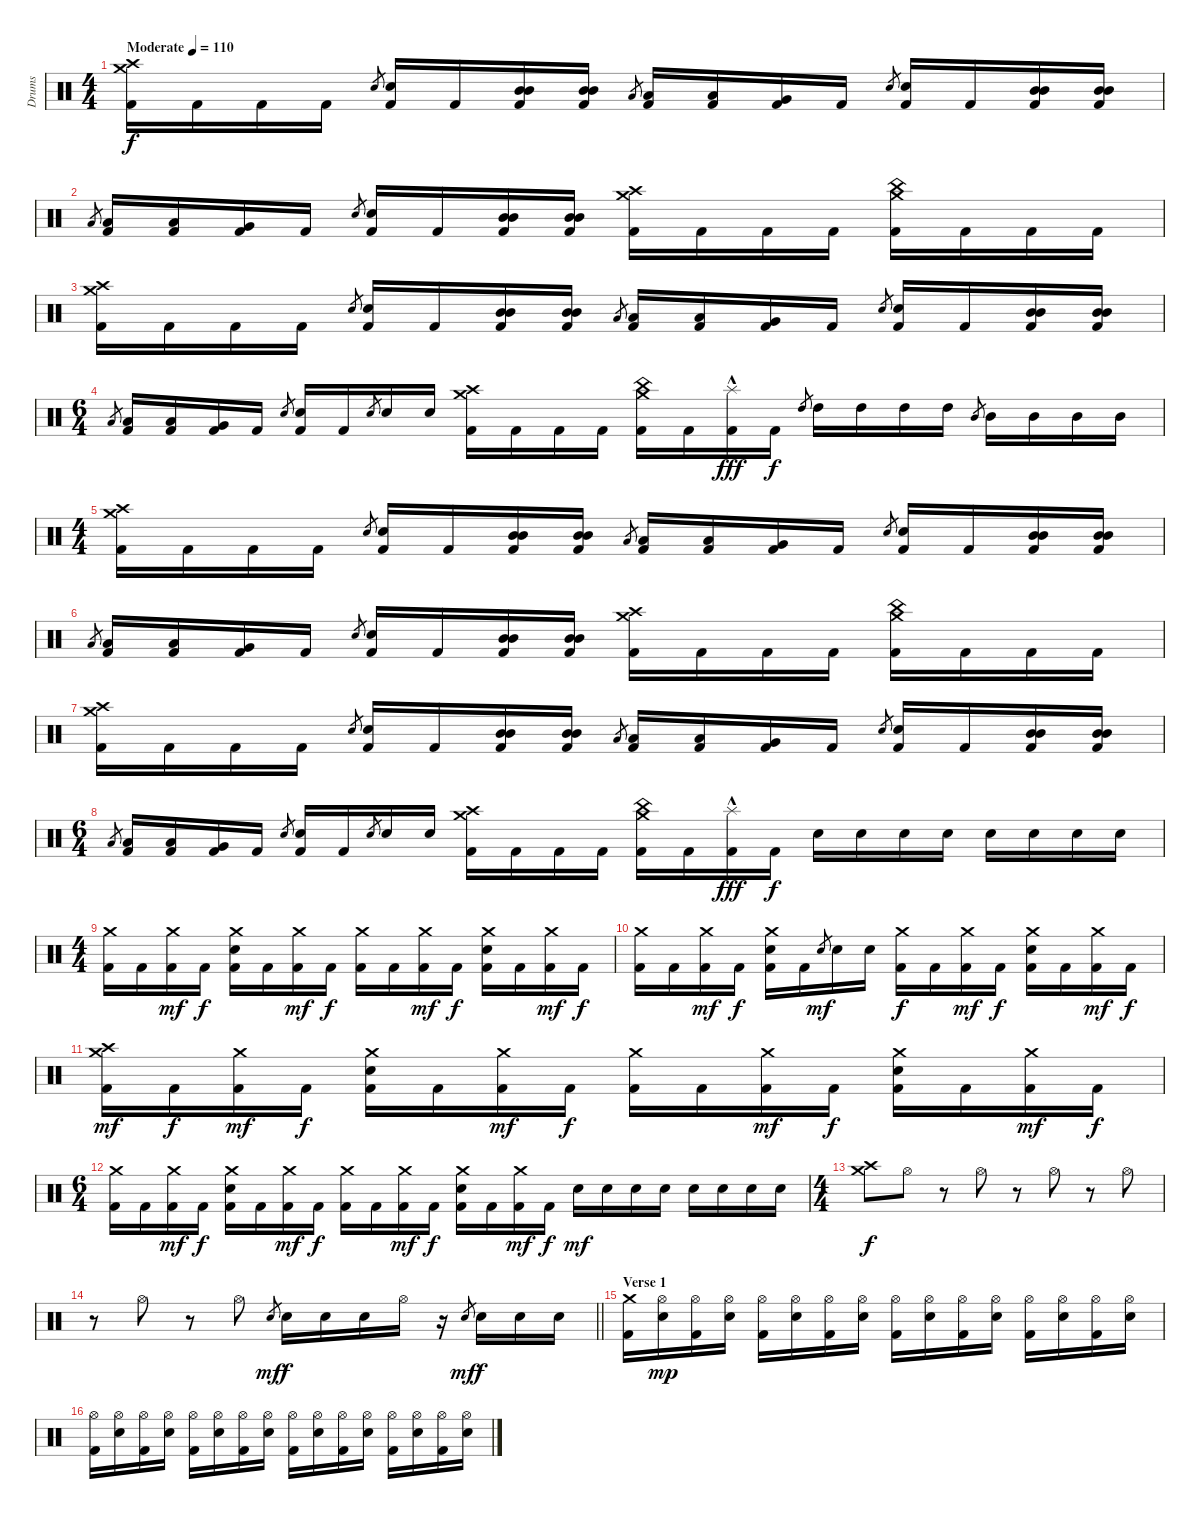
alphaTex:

\track ("Drums" "Drums") {instrument percussion}
\staff {score}
\articulation defaults
\ts (4 4)
\tempo (110 "Moderate")
\clef neutral
\ks c
("Crash high (hit)" "Crash medium (hit)" "Kick (hit) 2").16{dy f} "Kick (hit) 2".16 "Kick (hit) 2".16 "Kick (hit) 2".16 "Electric Snare (hit)".8{gr} ("Electric Snare (hit)" "Kick (hit) 2").16 "Kick (hit) 2".16 ("Mid Tom (hit)" "Mid Tom (hit)" "Kick (hit) 2").16 ("Mid Tom (hit)" "Mid Tom (hit)" "Kick (hit) 2").16 "Low Tom (hit)".8{gr} ("Low Tom (hit)" "Kick (hit) 2").16 ("Low Tom (hit)" "Kick (hit) 2").16 ("Very Low Tom (hit)" "Kick (hit) 2").16 "Kick (hit) 2".16 "Electric Snare (hit)".8{gr} ("Electric Snare (hit)" "Kick (hit) 2").16 "Kick (hit) 2".16 ("Mid Tom (hit)" "Mid Tom (hit)" "Kick (hit) 2").16 ("Mid Tom (hit)" "Mid Tom (hit)" "Kick (hit) 2").16 |
"Low Tom (hit)".8{gr} ("Low Tom (hit)" "Kick (hit) 2").16 ("Low Tom (hit)" "Kick (hit) 2").16 ("Very Low Tom (hit)" "Kick (hit) 2").16 "Kick (hit) 2".16 "Electric Snare (hit)".8{gr} ("Electric Snare (hit)" "Kick (hit) 2").16 "Kick (hit) 2".16 ("Mid Tom (hit)" "Mid Tom (hit)" "Kick (hit) 2").16 ("Mid Tom (hit)" "Mid Tom (hit)" "Kick (hit) 2").16 ("Crash high (hit)" "Crash medium (hit)" "Kick (hit) 2").16 "Kick (hit) 2".16 "Kick (hit) 2".16 "Kick (hit) 2".16 ("Crash medium (hit)" "China (hit)" "Kick (hit) 2").16 "Kick (hit) 2".16 "Kick (hit) 2".16 "Kick (hit) 2".16 |
("Crash high (hit)" "Crash medium (hit)" "Kick (hit) 2").16 "Kick (hit) 2".16 "Kick (hit) 2".16 "Kick (hit) 2".16 "Electric Snare (hit)".8{gr} ("Electric Snare (hit)" "Kick (hit) 2").16 "Kick (hit) 2".16 ("Mid Tom (hit)" "Mid Tom (hit)" "Kick (hit) 2").16 ("Mid Tom (hit)" "Mid Tom (hit)" "Kick (hit) 2").16 "Low Tom (hit)".8{gr} ("Low Tom (hit)" "Kick (hit) 2").16 ("Low Tom (hit)" "Kick (hit) 2").16 ("Very Low Tom (hit)" "Kick (hit) 2").16 "Kick (hit) 2".16 "Electric Snare (hit)".8{gr} ("Electric Snare (hit)" "Kick (hit) 2").16 "Kick (hit) 2".16 ("Mid Tom (hit)" "Mid Tom (hit)" "Kick (hit) 2").16 ("Mid Tom (hit)" "Mid Tom (hit)" "Kick (hit) 2").16 |
\ts (6 4)
"Low Tom (hit)".8{gr} ("Low Tom (hit)" "Kick (hit) 2").16 ("Low Tom (hit)" "Kick (hit) 2").16 ("Very Low Tom (hit)" "Kick (hit) 2").16 "Kick (hit) 2".16 "Electric Snare (hit)".8{gr} ("Electric Snare (hit)" "Kick (hit) 2").16 "Kick (hit) 2".16 "Electric Snare (hit)".8{gr} "Electric Snare (hit)".16 "Electric Snare (hit)".16 ("Crash high (hit)" "Crash medium (hit)" "Kick (hit) 2").16 "Kick (hit) 2".16 "Kick (hit) 2".16 "Kick (hit) 2".16 ("Crash medium (hit)" "China (hit)" "Kick (hit) 2").16 "Kick (hit) 2".16 ("Splash (hit)"{hac} "Kick (hit) 2").16{dy fff} "Kick (hit) 2".16{dy f} "High Tom (hit)".8{gr} "High Tom (hit)".16 "High Tom (hit)".16 "High Tom (hit)".16 "High Tom (hit)".16 "Mid Tom (hit)".8{gr} "Mid Tom (hit)".16 "Mid Tom (hit)".16 "Mid Tom (hit)".16 "Mid Tom (hit)".16 |
\ts (4 4)
("Crash high (hit)" "Crash medium (hit)" "Kick (hit) 2").16 "Kick (hit) 2".16 "Kick (hit) 2".16 "Kick (hit) 2".16 "Electric Snare (hit)".8{gr} ("Electric Snare (hit)" "Kick (hit) 2").16 "Kick (hit) 2".16 ("Mid Tom (hit)" "Mid Tom (hit)" "Kick (hit) 2").16 ("Mid Tom (hit)" "Mid Tom (hit)" "Kick (hit) 2").16 "Low Tom (hit)".8{gr} ("Low Tom (hit)" "Kick (hit) 2").16 ("Low Tom (hit)" "Kick (hit) 2").16 ("Very Low Tom (hit)" "Kick (hit) 2").16 "Kick (hit) 2".16 "Electric Snare (hit)".8{gr} ("Electric Snare (hit)" "Kick (hit) 2").16 "Kick (hit) 2".16 ("Mid Tom (hit)" "Mid Tom (hit)" "Kick (hit) 2").16 ("Mid Tom (hit)" "Mid Tom (hit)" "Kick (hit) 2").16 |
"Low Tom (hit)".8{gr} ("Low Tom (hit)" "Kick (hit) 2").16 ("Low Tom (hit)" "Kick (hit) 2").16 ("Very Low Tom (hit)" "Kick (hit) 2").16 "Kick (hit) 2".16 "Electric Snare (hit)".8{gr} ("Electric Snare (hit)" "Kick (hit) 2").16 "Kick (hit) 2".16 ("Mid Tom (hit)" "Mid Tom (hit)" "Kick (hit) 2").16 ("Mid Tom (hit)" "Mid Tom (hit)" "Kick (hit) 2").16 ("Crash high (hit)" "Crash medium (hit)" "Kick (hit) 2").16 "Kick (hit) 2".16 "Kick (hit) 2".16 "Kick (hit) 2".16 ("Crash medium (hit)" "China (hit)" "Kick (hit) 2").16 "Kick (hit) 2".16 "Kick (hit) 2".16 "Kick (hit) 2".16 |
("Crash high (hit)" "Crash medium (hit)" "Kick (hit) 2").16 "Kick (hit) 2".16 "Kick (hit) 2".16 "Kick (hit) 2".16 "Electric Snare (hit)".8{gr} ("Electric Snare (hit)" "Kick (hit) 2").16 "Kick (hit) 2".16 ("Mid Tom (hit)" "Mid Tom (hit)" "Kick (hit) 2").16 ("Mid Tom (hit)" "Mid Tom (hit)" "Kick (hit) 2").16 "Low Tom (hit)".8{gr} ("Low Tom (hit)" "Kick (hit) 2").16 ("Low Tom (hit)" "Kick (hit) 2").16 ("Very Low Tom (hit)" "Kick (hit) 2").16 "Kick (hit) 2".16 "Electric Snare (hit)".8{gr} ("Electric Snare (hit)" "Kick (hit) 2").16 "Kick (hit) 2".16 ("Mid Tom (hit)" "Mid Tom (hit)" "Kick (hit) 2").16 ("Mid Tom (hit)" "Mid Tom (hit)" "Kick (hit) 2").16 |
\ts (6 4)
"Low Tom (hit)".8{gr} ("Low Tom (hit)" "Kick (hit) 2").16 ("Low Tom (hit)" "Kick (hit) 2").16 ("Very Low Tom (hit)" "Kick (hit) 2").16 "Kick (hit) 2".16 "Electric Snare (hit)".8{gr} ("Electric Snare (hit)" "Kick (hit) 2").16 "Kick (hit) 2".16 "Electric Snare (hit)".8{gr} "Electric Snare (hit)".16 "Electric Snare (hit)".16 ("Crash high (hit)" "Crash medium (hit)" "Kick (hit) 2").16 "Kick (hit) 2".16 "Kick (hit) 2".16 "Kick (hit) 2".16 ("Crash medium (hit)" "China (hit)" "Kick (hit) 2").16 "Kick (hit) 2".16 ("Splash (hit)"{hac} "Kick (hit) 2").16{dy fff} "Kick (hit) 2".16{dy f} "Electric Snare (hit)".16 "Electric Snare (hit)".16 "Electric Snare (hit)".16 "Electric Snare (hit)".16 "Electric Snare (hit)".16 "Electric Snare (hit)".16 "Electric Snare (hit)".16 "Electric Snare (hit)".16 |
\ts (4 4)
("Crash medium (hit)" "Kick (hit) 2").16 "Kick (hit) 2".16 ("Crash medium (hit)" "Kick (hit) 2").16{dy mf} "Kick (hit) 2".16{dy f} ("Crash medium (hit)" "Electric Snare (hit)" "Kick (hit) 2").16 "Kick (hit) 2".16 ("Crash medium (hit)" "Kick (hit) 2").16{dy mf} "Kick (hit) 2".16{dy f} ("Crash medium (hit)" "Kick (hit) 2").16 "Kick (hit) 2".16 ("Crash medium (hit)" "Kick (hit) 2").16{dy mf} "Kick (hit) 2".16{dy f} ("Crash medium (hit)" "Electric Snare (hit)" "Kick (hit) 2").16 "Kick (hit) 2".16 ("Crash medium (hit)" "Kick (hit) 2").16{dy mf} "Kick (hit) 2".16{dy f} |
("Crash medium (hit)" "Kick (hit) 2").16 "Kick (hit) 2".16 ("Crash medium (hit)" "Kick (hit) 2").16{dy mf} "Kick (hit) 2".16{dy f} ("Crash medium (hit)" "Electric Snare (hit)" "Kick (hit) 2").16 "Kick (hit) 2".16 "Electric Snare (hit)".8{gr dy mf} "Electric Snare (hit)".16 "Electric Snare (hit)".16 ("Crash medium (hit)" "Kick (hit) 2").16{dy f} "Kick (hit) 2".16 ("Crash medium (hit)" "Kick (hit) 2").16{dy mf} "Kick (hit) 2".16{dy f} ("Crash medium (hit)" "Electric Snare (hit)" "Kick (hit) 2").16 "Kick (hit) 2".16 ("Crash medium (hit)" "Kick (hit) 2").16{dy mf} "Kick (hit) 2".16{dy f} |
("Crash medium (hit)" "Crash high (hit)" "Kick (hit) 2").16{dy mf} "Kick (hit) 2".16{dy f} ("Crash medium (hit)" "Kick (hit) 2").16{dy mf} "Kick (hit) 2".16{dy f} ("Crash medium (hit)" "Electric Snare (hit)" "Kick (hit) 2").16 "Kick (hit) 2".16 ("Crash medium (hit)" "Kick (hit) 2").16{dy mf} "Kick (hit) 2".16{dy f} ("Crash medium (hit)" "Kick (hit) 2").16 "Kick (hit) 2".16 ("Crash medium (hit)" "Kick (hit) 2").16{dy mf} "Kick (hit) 2".16{dy f} ("Crash medium (hit)" "Electric Snare (hit)" "Kick (hit) 2").16 "Kick (hit) 2".16 ("Crash medium (hit)" "Kick (hit) 2").16{dy mf} "Kick (hit) 2".16{dy f} |
\ts (6 4)
("Crash medium (hit)" "Kick (hit) 2").16 "Kick (hit) 2".16 ("Crash medium (hit)" "Kick (hit) 2").16{dy mf} "Kick (hit) 2".16{dy f} ("Crash medium (hit)" "Electric Snare (hit)" "Kick (hit) 2").16 "Kick (hit) 2".16 ("Crash medium (hit)" "Kick (hit) 2").16{dy mf} "Kick (hit) 2".16{dy f} ("Crash medium (hit)" "Kick (hit) 2").16 "Kick (hit) 2".16 ("Crash medium (hit)" "Kick (hit) 2").16{dy mf} "Kick (hit) 2".16{dy f} ("Crash medium (hit)" "Electric Snare (hit)" "Kick (hit) 2").16 "Kick (hit) 2".16 ("Crash medium (hit)" "Kick (hit) 2").16{dy mf} "Kick (hit) 2".16{dy f} "Electric Snare (hit)".16{dy mf} "Electric Snare (hit)".16 "Electric Snare (hit)".16 "Electric Snare (hit)".16 "Electric Snare (hit)".16 "Electric Snare (hit)".16 "Electric Snare (hit)".16 "Electric Snare (hit)".16 |
\ts (4 4)
("Crash high (hit)" "Crash medium (hit)").8{dy f} "Hi-Hat (open)".8 r.8 "Hi-Hat (open)".8 r.8 "Hi-Hat (open)".8 r.8 "Hi-Hat (open)".8 |
\barLineRight lightlight
r.8 "Hi-Hat (open)".8 r.8 "Hi-Hat (open)".8 "Electric Snare (hit)".8{gr dy mf} "Electric Snare (hit)".16{dy f} "Electric Snare (hit)".16 "Electric Snare (hit)".16 "Hi-Hat (open)".16 r.16 "Electric Snare (hit)".8{gr dy mf} "Electric Snare (hit)".16{dy f} "Electric Snare (hit)".16 "Electric Snare (hit)".16 |
\section ("" "Verse 1")
("Crash medium (hit)" "Kick (hit) 2").16 ("Hi-Hat (open)" "Electric Snare (hit)").16{dy mp} ("Hi-Hat (open)" "Kick (hit) 2").16 ("Hi-Hat (open)" "Electric Snare (hit)").16 ("Hi-Hat (open)" "Kick (hit) 2").16 ("Hi-Hat (open)" "Electric Snare (hit)").16 ("Hi-Hat (open)" "Kick (hit) 2").16 ("Hi-Hat (open)" "Electric Snare (hit)").16 ("Hi-Hat (open)" "Kick (hit) 2").16 ("Hi-Hat (open)" "Electric Snare (hit)").16 ("Hi-Hat (open)" "Kick (hit) 2").16 ("Hi-Hat (open)" "Electric Snare (hit)").16 ("Hi-Hat (open)" "Kick (hit) 2").16 ("Hi-Hat (open)" "Electric Snare (hit)").16 ("Hi-Hat (open)" "Kick (hit) 2").16 ("Hi-Hat (open)" "Electric Snare (hit)").16 |
("Hi-Hat (open)" "Kick (hit) 2").16 ("Hi-Hat (open)" "Electric Snare (hit)").16 ("Hi-Hat (open)" "Kick (hit) 2").16 ("Hi-Hat (open)" "Electric Snare (hit)").16 ("Hi-Hat (open)" "Kick (hit) 2").16 ("Hi-Hat (open)" "Electric Snare (hit)").16 ("Hi-Hat (open)" "Kick (hit) 2").16 ("Hi-Hat (open)" "Electric Snare (hit)").16 ("Hi-Hat (open)" "Kick (hit) 2").16 ("Hi-Hat (open)" "Electric Snare (hit)").16 ("Hi-Hat (open)" "Kick (hit) 2").16 ("Hi-Hat (open)" "Electric Snare (hit)").16 ("Hi-Hat (open)" "Kick (hit) 2").16 ("Hi-Hat (open)" "Electric Snare (hit)").16 ("Hi-Hat (open)" "Kick (hit) 2").16 ("Hi-Hat (open)" "Electric Snare (hit)").16
